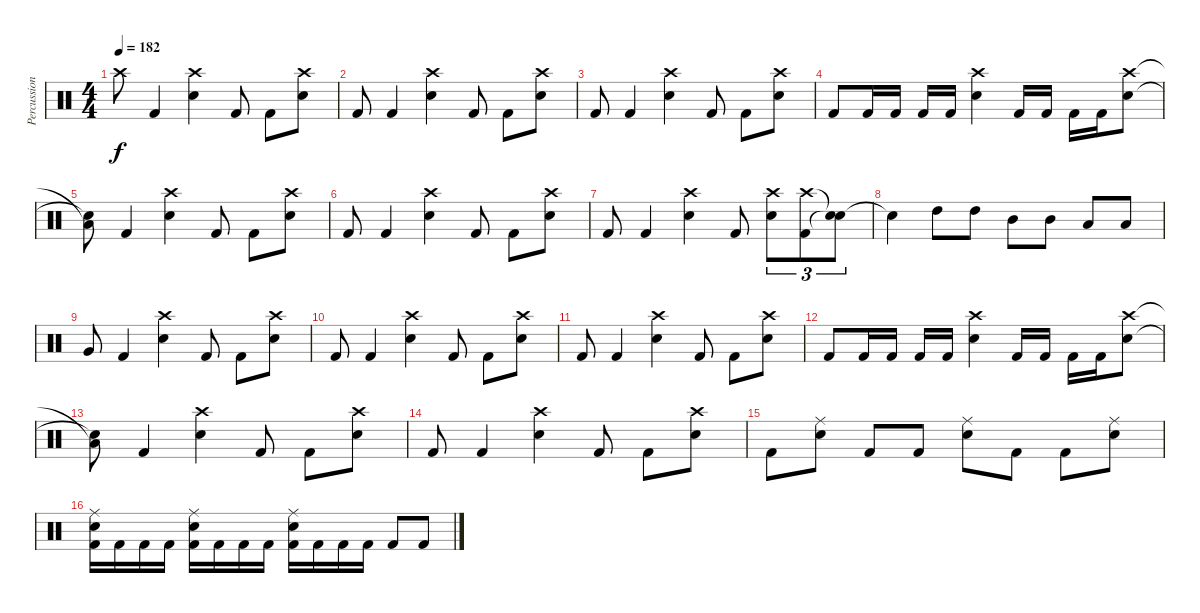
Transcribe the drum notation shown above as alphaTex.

\track ("Percussion" "Percussion") {instrument percussion}
\staff {score}
\articulation defaults
\ts (4 4)
\tempo 182
\clef neutral
\ks c "Crash high (hit)"{t}.8{dy f} "Kick (hit) 2".4
("Crash high (hit)" "Snare (hit) 2").4 "Kick (hit) 2".8 "Kick (hit) 2".8 ("Crash high (hit)" "Snare (hit) 2").8 |
"Kick (hit) 2".8 "Kick (hit) 2".4 ("Crash high (hit)" "Snare (hit) 2").4 "Kick (hit) 2".8 "Kick (hit) 2".8 ("Crash high (hit)" "Snare (hit) 2").8 |
"Kick (hit) 2".8 "Kick (hit) 2".4 ("Crash high (hit)" "Snare (hit) 2").4 "Kick (hit) 2".8 "Kick (hit) 2".8 ("Crash high (hit)" "Snare (hit) 2").8 |
"Kick (hit) 2".8 "Kick (hit) 2".16 "Kick (hit) 2".16 "Kick (hit) 2".16 "Kick (hit) 2".16 ("Crash high (hit)" "Snare (hit) 2").4 "Kick (hit) 2".16 "Kick (hit) 2".16 "Kick (hit) 2".16 "Kick (hit) 2".16 ("Crash high (hit)" "Snare (hit) 2").8 |
("Low Floor Tom (hit)"{t} "Snare (hit)"{t}).8 "Kick (hit) 2".4 ("Crash high (hit)" "Snare (hit) 2").4 "Kick (hit) 2".8 "Kick (hit) 2".8 ("Crash high (hit)" "Snare (hit) 2").8 |
"Kick (hit) 2".8 "Kick (hit) 2".4 ("Crash high (hit)" "Snare (hit) 2").4 "Kick (hit) 2".8 "Kick (hit) 2".8 ("Crash high (hit)" "Snare (hit) 2").8 |
"Kick (hit) 2".8 "Kick (hit) 2".4 ("Crash high (hit)" "Snare (hit) 2").4 "Kick (hit) 2".8 ("Crash high (hit)" "Snare (hit) 2").8{tu (3 2)} ("Kick (hit) 2" "Crash high (hit)").8{tu (3 2)} ("Snare (hit)"{t} "Snare (hit)"{t}).8{tu (3 2)} |
"Snare (hit)"{t}.4 "High Tom (hit)".8 "High Tom (hit)".8 "Mid Tom (hit)".8 "Mid Tom (hit)".8 "Low Tom (hit)".8 "Low Tom (hit)".8 |
"Very Low Tom (hit)".8 "Kick (hit) 2".4 ("Crash high (hit)" "Snare (hit) 2").4 "Kick (hit) 2".8 "Kick (hit) 2".8 ("Crash high (hit)" "Snare (hit) 2").8 |
"Kick (hit) 2".8 "Kick (hit) 2".4 ("Crash high (hit)" "Snare (hit) 2").4 "Kick (hit) 2".8 "Kick (hit) 2".8 ("Crash high (hit)" "Snare (hit) 2").8 |
"Kick (hit) 2".8 "Kick (hit) 2".4 ("Crash high (hit)" "Snare (hit) 2").4 "Kick (hit) 2".8 "Kick (hit) 2".8 ("Crash high (hit)" "Snare (hit) 2").8 |
"Kick (hit) 2".8 "Kick (hit) 2".16 "Kick (hit) 2".16 "Kick (hit) 2".16 "Kick (hit) 2".16 ("Crash high (hit)" "Snare (hit) 2").4 "Kick (hit) 2".16 "Kick (hit) 2".16 "Kick (hit) 2".16 "Kick (hit) 2".16 ("Crash high (hit)" "Snare (hit) 2").8 |
("Low Floor Tom (hit)"{t} "Snare (hit)"{t}).8 "Kick (hit) 2".4 ("Crash high (hit)" "Snare (hit) 2").4 "Kick (hit) 2".8 "Kick (hit) 2".8 ("Crash high (hit)" "Snare (hit) 2").8 |
"Kick (hit) 2".8 "Kick (hit) 2".4 ("Crash high (hit)" "Snare (hit) 2").4 "Kick (hit) 2".8 "Kick (hit) 2".8 ("Crash high (hit)" "Snare (hit) 2").8 |
"Kick (hit) 2".8 ("Ride (middle)" "Snare (hit) 2").8 "Kick (hit) 2".8 "Kick (hit) 2".8 ("Ride (middle)" "Snare (hit) 2").8 "Kick (hit) 2".8 "Kick (hit) 2".8 ("Ride (middle)" "Snare (hit) 2").8 |
("Kick (hit) 2" "Ride (middle)" "Snare (hit) 2").16 "Kick (hit) 2".16 "Kick (hit) 2".16 "Kick (hit) 2".16 ("Kick (hit) 2" "Ride (middle)" "Snare (hit) 2").16 "Kick (hit) 2".16 "Kick (hit) 2".16 "Kick (hit) 2".16 ("Kick (hit) 2" "Ride (middle)" "Snare (hit) 2").16 "Kick (hit) 2".16 "Kick (hit) 2".16 "Kick (hit) 2".16 "Kick (hit) 2".8 "Kick (hit) 2".8
